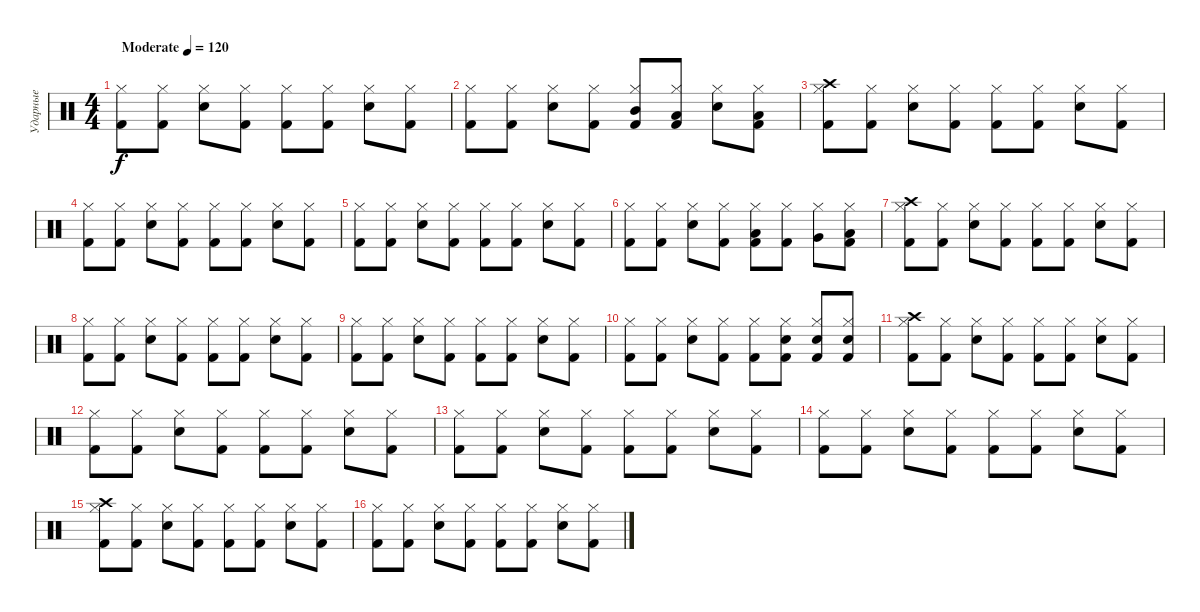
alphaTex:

\track ("Ударные" "Ударные") {instrument percussion}
\staff {score}
\articulation defaults
\ts (4 4)
\tempo (120 "Moderate")
\clef neutral
\ks c
("Kick (hit) 2" "Hi-Hat (closed)").8{dy f} ("Kick (hit) 2" "Hi-Hat (closed)").8 ("Snare (hit) 2" "Hi-Hat (closed)").8 ("Kick (hit) 2" "Hi-Hat (closed)").8 ("Kick (hit) 2" "Hi-Hat (closed)").8 ("Kick (hit) 2" "Hi-Hat (closed)").8 ("Snare (hit) 2" "Hi-Hat (closed)").8 ("Kick (hit) 2" "Hi-Hat (closed)").8 |
("Kick (hit) 2" "Hi-Hat (closed)").8 ("Kick (hit) 2" "Hi-Hat (closed)").8 ("Snare (hit) 2" "Hi-Hat (closed)").8 ("Kick (hit) 2" "Hi-Hat (closed)").8 ("Kick (hit) 2" "Hi-Hat (closed)" "Mid Tom (hit)").8 ("Kick (hit) 2" "Hi-Hat (closed)" "Low Tom (hit)").8 ("Snare (hit) 2" "Hi-Hat (closed)").8 ("Kick (hit) 2" "Hi-Hat (closed)" "Low Floor Tom (hit)").8 |
("Kick (hit) 2" "Hi-Hat (closed)" "Crash high (hit)").8 ("Kick (hit) 2" "Hi-Hat (closed)").8 ("Snare (hit) 2" "Hi-Hat (closed)").8 ("Kick (hit) 2" "Hi-Hat (closed)").8 ("Kick (hit) 2" "Hi-Hat (closed)").8 ("Kick (hit) 2" "Hi-Hat (closed)").8 ("Snare (hit) 2" "Hi-Hat (closed)").8 ("Kick (hit) 2" "Hi-Hat (closed)").8 |
("Kick (hit) 2" "Hi-Hat (closed)").8 ("Kick (hit) 2" "Hi-Hat (closed)").8 ("Snare (hit) 2" "Hi-Hat (closed)").8 ("Kick (hit) 2" "Hi-Hat (closed)").8 ("Kick (hit) 2" "Hi-Hat (closed)").8 ("Kick (hit) 2" "Hi-Hat (closed)").8 ("Snare (hit) 2" "Hi-Hat (closed)").8 ("Kick (hit) 2" "Hi-Hat (closed)").8 |
("Kick (hit) 2" "Hi-Hat (closed)").8 ("Kick (hit) 2" "Hi-Hat (closed)").8 ("Snare (hit) 2" "Hi-Hat (closed)").8 ("Kick (hit) 2" "Hi-Hat (closed)").8 ("Kick (hit) 2" "Hi-Hat (closed)").8 ("Kick (hit) 2" "Hi-Hat (closed)").8 ("Snare (hit) 2" "Hi-Hat (closed)").8 ("Kick (hit) 2" "Hi-Hat (closed)").8 |
("Kick (hit) 2" "Hi-Hat (closed)").8 ("Kick (hit) 2" "Hi-Hat (closed)").8 ("Snare (hit) 2" "Hi-Hat (closed)").8 ("Kick (hit) 2" "Hi-Hat (closed)").8 ("Kick (hit) 2" "Hi-Hat (closed)" "Low Tom (hit)").8 ("Kick (hit) 2" "Hi-Hat (closed)").8 ("Hi-Hat (closed)" "Very Low Tom (hit)").8 ("Kick (hit) 2" "Hi-Hat (closed)" "Low Floor Tom (hit)").8 |
("Kick (hit) 2" "Hi-Hat (closed)" "Crash high (hit)").8 ("Kick (hit) 2" "Hi-Hat (closed)").8 ("Snare (hit) 2" "Hi-Hat (closed)").8 ("Kick (hit) 2" "Hi-Hat (closed)").8 ("Kick (hit) 2" "Hi-Hat (closed)").8 ("Kick (hit) 2" "Hi-Hat (closed)").8 ("Snare (hit) 2" "Hi-Hat (closed)").8 ("Kick (hit) 2" "Hi-Hat (closed)").8 |
("Kick (hit) 2" "Hi-Hat (closed)").8 ("Kick (hit) 2" "Hi-Hat (closed)").8 ("Snare (hit) 2" "Hi-Hat (closed)").8 ("Kick (hit) 2" "Hi-Hat (closed)").8 ("Kick (hit) 2" "Hi-Hat (closed)").8 ("Kick (hit) 2" "Hi-Hat (closed)").8 ("Snare (hit) 2" "Hi-Hat (closed)").8 ("Kick (hit) 2" "Hi-Hat (closed)").8 |
("Kick (hit) 2" "Hi-Hat (closed)").8 ("Kick (hit) 2" "Hi-Hat (closed)").8 ("Snare (hit) 2" "Hi-Hat (closed)").8 ("Kick (hit) 2" "Hi-Hat (closed)").8 ("Kick (hit) 2" "Hi-Hat (closed)").8 ("Kick (hit) 2" "Hi-Hat (closed)").8 ("Snare (hit) 2" "Hi-Hat (closed)").8 ("Kick (hit) 2" "Hi-Hat (closed)").8 |
("Kick (hit) 2" "Hi-Hat (closed)").8 ("Kick (hit) 2" "Hi-Hat (closed)").8 ("Snare (hit) 2" "Hi-Hat (closed)").8 ("Kick (hit) 2" "Hi-Hat (closed)").8 ("Kick (hit) 2" "Hi-Hat (closed)").8 ("Kick (hit) 2" "Hi-Hat (closed)" "Snare (hit) 2").8 ("Snare (hit) 2" "Hi-Hat (closed)" "Kick (hit) 2").8 ("Kick (hit) 2" "Hi-Hat (closed)" "Snare (hit) 2").8 |
("Kick (hit) 2" "Hi-Hat (closed)" "Crash high (hit)").8 ("Kick (hit) 2" "Hi-Hat (closed)").8 ("Snare (hit) 2" "Hi-Hat (closed)").8 ("Kick (hit) 2" "Hi-Hat (closed)").8 ("Kick (hit) 2" "Hi-Hat (closed)").8 ("Kick (hit) 2" "Hi-Hat (closed)").8 ("Snare (hit) 2" "Hi-Hat (closed)").8 ("Kick (hit) 2" "Hi-Hat (closed)").8 |
("Kick (hit) 2" "Hi-Hat (closed)").8 ("Kick (hit) 2" "Hi-Hat (closed)").8 ("Snare (hit) 2" "Hi-Hat (closed)").8 ("Kick (hit) 2" "Hi-Hat (closed)").8 ("Kick (hit) 2" "Hi-Hat (closed)").8 ("Kick (hit) 2" "Hi-Hat (closed)").8 ("Snare (hit) 2" "Hi-Hat (closed)").8 ("Kick (hit) 2" "Hi-Hat (closed)").8 |
("Kick (hit) 2" "Hi-Hat (closed)").8 ("Kick (hit) 2" "Hi-Hat (closed)").8 ("Snare (hit) 2" "Hi-Hat (closed)").8 ("Kick (hit) 2" "Hi-Hat (closed)").8 ("Kick (hit) 2" "Hi-Hat (closed)").8 ("Kick (hit) 2" "Hi-Hat (closed)").8 ("Snare (hit) 2" "Hi-Hat (closed)").8 ("Kick (hit) 2" "Hi-Hat (closed)").8 |
("Kick (hit) 2" "Hi-Hat (closed)").8 ("Kick (hit) 2" "Hi-Hat (closed)").8 ("Snare (hit) 2" "Hi-Hat (closed)").8 ("Kick (hit) 2" "Hi-Hat (closed)").8 ("Kick (hit) 2" "Hi-Hat (closed)").8 ("Kick (hit) 2" "Hi-Hat (closed)").8 ("Snare (hit) 2" "Hi-Hat (closed)").8 ("Kick (hit) 2" "Hi-Hat (closed)").8 |
("Kick (hit) 2" "Hi-Hat (closed)" "Crash high (hit)").8 ("Kick (hit) 2" "Hi-Hat (closed)").8 ("Snare (hit) 2" "Hi-Hat (closed)").8 ("Kick (hit) 2" "Hi-Hat (closed)").8 ("Kick (hit) 2" "Hi-Hat (closed)").8 ("Kick (hit) 2" "Hi-Hat (closed)").8 ("Snare (hit) 2" "Hi-Hat (closed)").8 ("Kick (hit) 2" "Hi-Hat (closed)").8 |
("Kick (hit) 2" "Hi-Hat (closed)").8 ("Kick (hit) 2" "Hi-Hat (closed)").8 ("Snare (hit) 2" "Hi-Hat (closed)").8 ("Kick (hit) 2" "Hi-Hat (closed)").8 ("Kick (hit) 2" "Hi-Hat (closed)").8 ("Kick (hit) 2" "Hi-Hat (closed)").8 ("Snare (hit) 2" "Hi-Hat (closed)").8 ("Kick (hit) 2" "Hi-Hat (closed)").8
